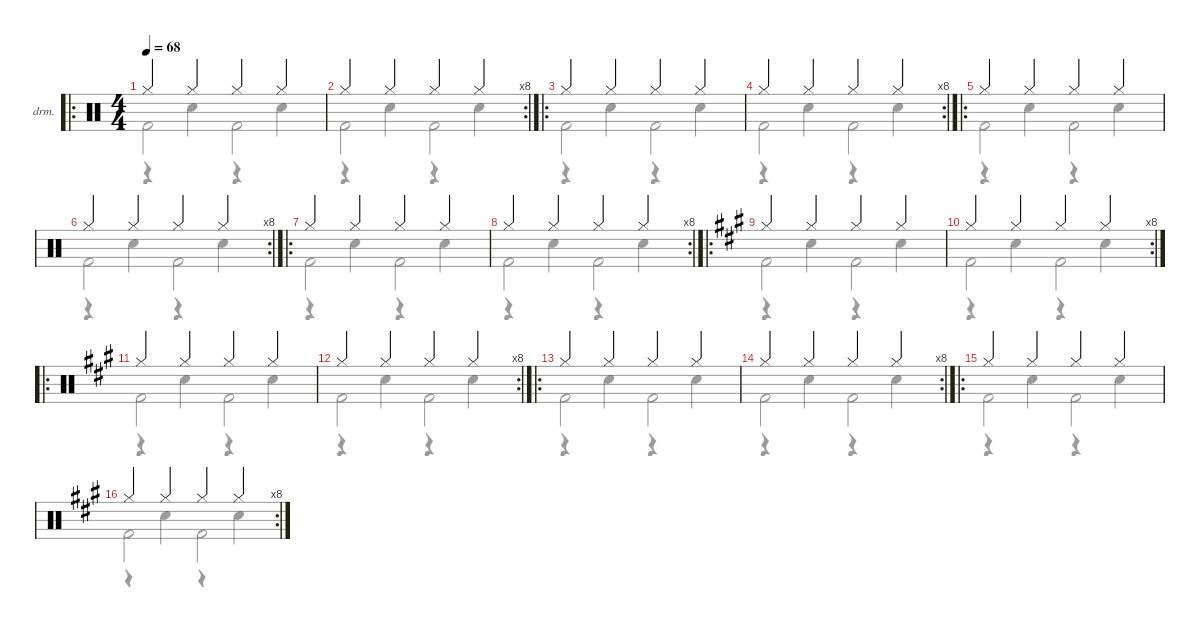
\defaultSystemsLayout 4
\hideDynamics
\bracketExtendMode nobrackets
\firstSystemTrackNameOrientation horizontal
\otherSystemsTrackNameOrientation horizontal
\track ("Drumkit" "drm.") {defaultSystemsLayout 1 instrument percussion}
\staff {score}
\articulation defaults
\voice
\ro
\ts (4 4)
\tempo 68
\clef neutral
\ks c "Hi-Hat (closed)".4{dy fff} "Hi-Hat (closed)".4 "Hi-Hat (closed)".4 "Hi-Hat (closed)".4
|
\rc 8 "Hi-Hat (closed)".4 "Hi-Hat (closed)".4 "Hi-Hat (closed)".4 "Hi-Hat (closed)".4
|
\ro "Hi-Hat (closed)".4 "Hi-Hat (closed)".4 "Hi-Hat (closed)".4 "Hi-Hat (closed)".4
|
\rc 8 "Hi-Hat (closed)".4 "Hi-Hat (closed)".4 "Hi-Hat (closed)".4 "Hi-Hat (closed)".4
|
\ro "Hi-Hat (closed)".4 "Hi-Hat (closed)".4 "Hi-Hat (closed)".4 "Hi-Hat (closed)".4
|
\rc 8 "Hi-Hat (closed)".4 "Hi-Hat (closed)".4 "Hi-Hat (closed)".4 "Hi-Hat (closed)".4
|
\ro "Hi-Hat (closed)".4 "Hi-Hat (closed)".4 "Hi-Hat (closed)".4 "Hi-Hat (closed)".4
|
\rc 8 "Hi-Hat (closed)".4 "Hi-Hat (closed)".4 "Hi-Hat (closed)".4 "Hi-Hat (closed)".4
|
\ro
\ks a "Hi-Hat (closed)"{acc forcenatural}.4 "Hi-Hat (closed)"{acc forcenatural}.4 "Hi-Hat (closed)"{acc forcenatural}.4 "Hi-Hat (closed)"{acc forcenatural}.4
|
\rc 8 "Hi-Hat (closed)"{acc forcenatural}.4 "Hi-Hat (closed)"{acc forcenatural}.4 "Hi-Hat (closed)"{acc forcenatural}.4 "Hi-Hat (closed)"{acc forcenatural}.4
|
\ro "Hi-Hat (closed)"{acc forcenatural}.4 "Hi-Hat (closed)"{acc forcenatural}.4 "Hi-Hat (closed)"{acc forcenatural}.4 "Hi-Hat (closed)"{acc forcenatural}.4
|
\rc 8 "Hi-Hat (closed)"{acc forcenatural}.4 "Hi-Hat (closed)"{acc forcenatural}.4 "Hi-Hat (closed)"{acc forcenatural}.4 "Hi-Hat (closed)"{acc forcenatural}.4
|
\ro "Hi-Hat (closed)"{acc forcenatural}.4 "Hi-Hat (closed)"{acc forcenatural}.4 "Hi-Hat (closed)"{acc forcenatural}.4 "Hi-Hat (closed)"{acc forcenatural}.4
|
\rc 8 "Hi-Hat (closed)"{acc forcenatural}.4 "Hi-Hat (closed)"{acc forcenatural}.4 "Hi-Hat (closed)"{acc forcenatural}.4 "Hi-Hat (closed)"{acc forcenatural}.4
|
\ro "Hi-Hat (closed)"{acc forcenatural}.4 "Hi-Hat (closed)"{acc forcenatural}.4 "Hi-Hat (closed)"{acc forcenatural}.4 "Hi-Hat (closed)"{acc forcenatural}.4
|
\rc 8 "Hi-Hat (closed)"{acc forcenatural}.4 "Hi-Hat (closed)"{acc forcenatural}.4 "Hi-Hat (closed)"{acc forcenatural}.4 "Hi-Hat (closed)"{acc forcenatural}.4
\voice
\clef neutral
\ks c "Kick (hit) 2".2{dy p} "Kick (hit) 2".2
|
"Kick (hit) 2".2 "Kick (hit) 2".2 |
"Kick (hit) 2".2 "Kick (hit) 2".2 |
"Kick (hit) 2".2 "Kick (hit) 2".2 |
"Kick (hit) 2".2 "Kick (hit) 2".2 |
"Kick (hit) 2".2 "Kick (hit) 2".2 |
"Kick (hit) 2".2 "Kick (hit) 2".2 |
"Kick (hit) 2".2 "Kick (hit) 2".2 |
\ks a "Kick (hit) 2"{acc forcenatural}.2 "Kick (hit) 2"{acc forcenatural}.2
|
"Kick (hit) 2"{acc forcenatural}.2 "Kick (hit) 2"{acc forcenatural}.2 |
"Kick (hit) 2"{acc forcenatural}.2 "Kick (hit) 2"{acc forcenatural}.2 |
"Kick (hit) 2"{acc forcenatural}.2 "Kick (hit) 2"{acc forcenatural}.2 |
"Kick (hit) 2"{acc forcenatural}.2 "Kick (hit) 2"{acc forcenatural}.2 |
"Kick (hit) 2"{acc forcenatural}.2 "Kick (hit) 2"{acc forcenatural}.2 |
"Kick (hit) 2"{acc forcenatural}.2 "Kick (hit) 2"{acc forcenatural}.2 |
"Kick (hit) 2"{acc forcenatural}.2 "Kick (hit) 2"{acc forcenatural}.2
\voice
\clef neutral
\ottava regular
\simile none
\ks c
r.4{dy mf} "Snare (hit) 2".4 r.4 "Snare (hit) 2".4 |
r.4 "Snare (hit) 2".4 r.4 "Snare (hit) 2".4 |
r.4 "Snare (hit) 2".4 r.4 "Snare (hit) 2".4 |
r.4 "Snare (hit) 2".4 r.4 "Snare (hit) 2".4 |
r.4 "Snare (hit) 2".4 r.4 "Snare (hit) 2".4 |
r.4 "Snare (hit) 2".4 r.4 "Snare (hit) 2".4 |
r.4 "Snare (hit) 2".4 r.4 "Snare (hit) 2".4 |
r.4 "Snare (hit) 2".4 r.4 "Snare (hit) 2".4 |
\ks a
r.4 "Snare (hit) 2"{acc forcenatural}.4 r.4 "Snare (hit) 2"{acc forcenatural}.4 |
r.4 "Snare (hit) 2"{acc forcenatural}.4 r.4 "Snare (hit) 2"{acc forcenatural}.4 |
r.4 "Snare (hit) 2"{acc forcenatural}.4 r.4 "Snare (hit) 2"{acc forcenatural}.4 |
r.4 "Snare (hit) 2"{acc forcenatural}.4 r.4 "Snare (hit) 2"{acc forcenatural}.4 |
r.4 "Snare (hit) 2"{acc forcenatural}.4 r.4 "Snare (hit) 2"{acc forcenatural}.4 |
r.4 "Snare (hit) 2"{acc forcenatural}.4 r.4 "Snare (hit) 2"{acc forcenatural}.4 |
r.4 "Snare (hit) 2"{acc forcenatural}.4 r.4 "Snare (hit) 2"{acc forcenatural}.4 |
r.4 "Snare (hit) 2"{acc forcenatural}.4 r.4 "Snare (hit) 2"{acc forcenatural}.4
